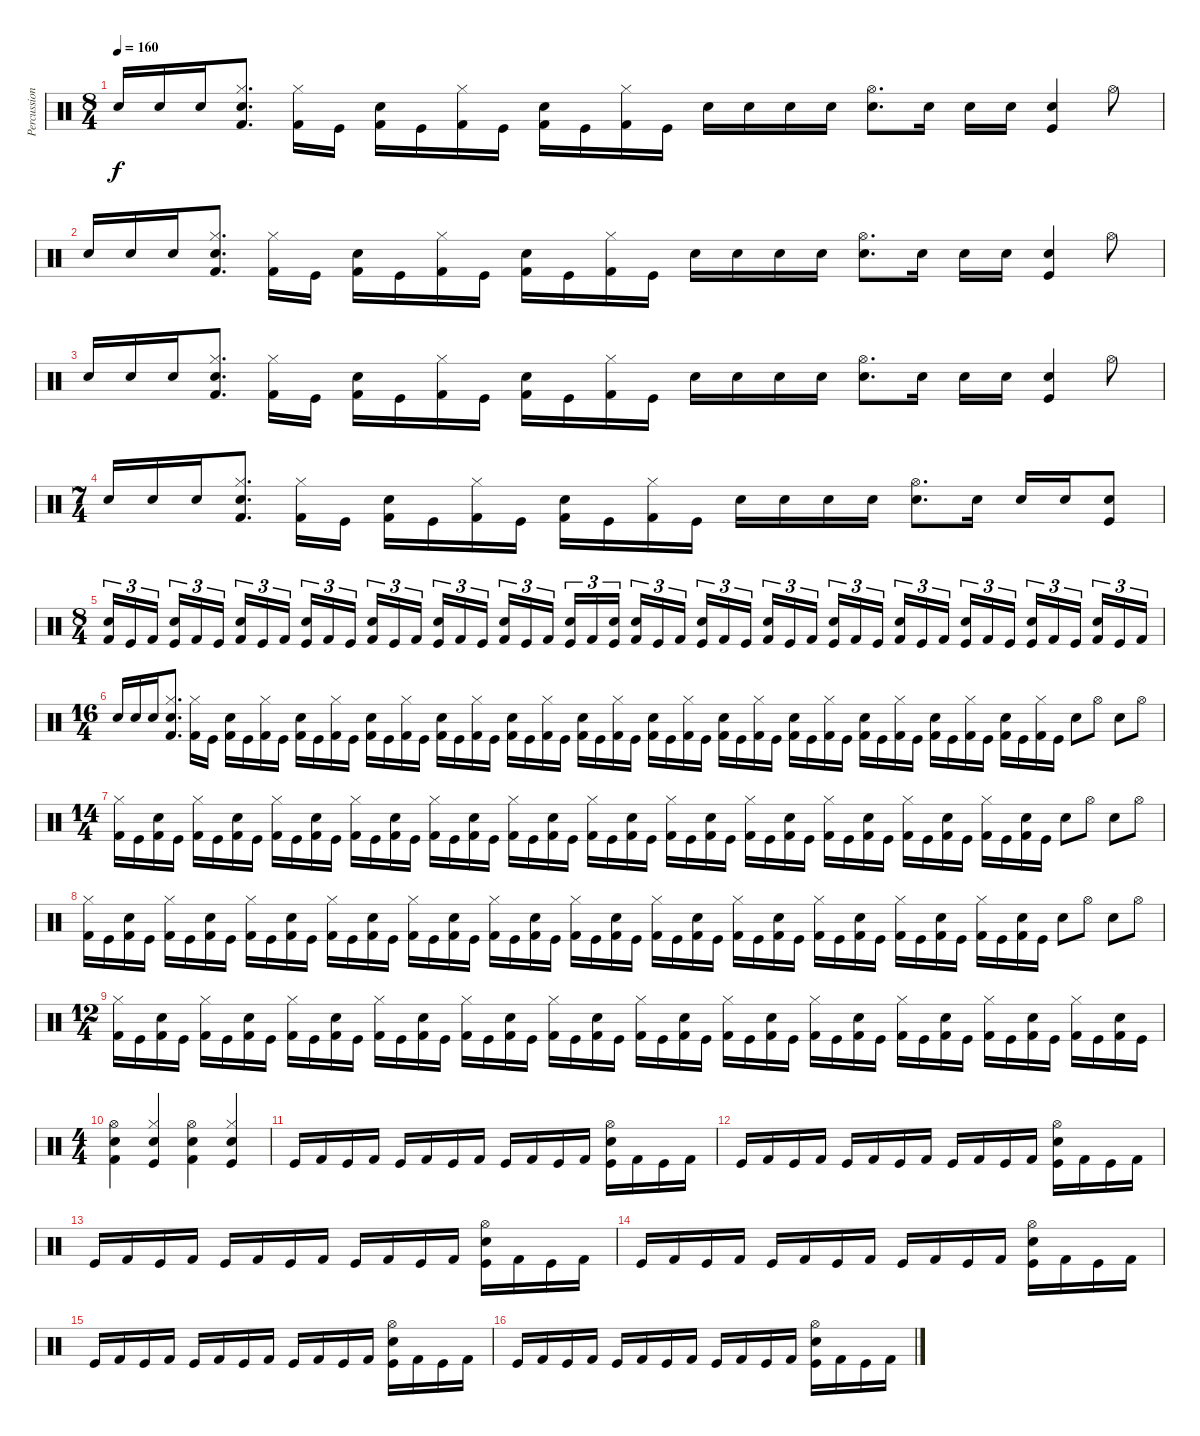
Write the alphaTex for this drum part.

\track ("Percussions" "Percussion") {instrument percussion}
\staff {score}
\articulation defaults
\ts (8 4)
\tempo 160
\clef neutral
\ks c "Electric Snare (hit)".16{dy f} "Electric Snare (hit)".16 "Electric Snare (hit)".16
("Hi-Hat (closed)" "Electric Snare (hit)" "Kick (hit) 2").8{d} ("Hi-Hat (closed)" "Kick (hit) 2").16 "Kick (hit)".16 ("Snare (hit) 2" "Kick (hit) 2").16 "Kick (hit)".16 ("Hi-Hat (closed)" "Kick (hit) 2").16 "Kick (hit)".16 ("Snare (hit) 2" "Kick (hit) 2").16 "Kick (hit)".16 ("Hi-Hat (closed)" "Kick (hit) 2").16 "Kick (hit)".16 "Snare (hit) 2".16 "Electric Snare (hit)".16 "Electric Snare (hit)".16 "Electric Snare (hit)".16 ("Hi-Hat (open)" "Electric Snare (hit)").8{d} "Electric Snare (hit)".16 "Electric Snare (hit)".16 "Electric Snare (hit)".16 ("Electric Snare (hit)" "Kick (hit)").4 "Hi-Hat (open)".8 |
"Electric Snare (hit)".16 "Electric Snare (hit)".16 "Electric Snare (hit)".16 ("Hi-Hat (closed)" "Electric Snare (hit)" "Kick (hit) 2").8{d} ("Hi-Hat (closed)" "Kick (hit) 2").16 "Kick (hit)".16 ("Snare (hit) 2" "Kick (hit) 2").16 "Kick (hit)".16 ("Hi-Hat (closed)" "Kick (hit) 2").16 "Kick (hit)".16 ("Snare (hit) 2" "Kick (hit) 2").16 "Kick (hit)".16 ("Hi-Hat (closed)" "Kick (hit) 2").16 "Kick (hit)".16 "Snare (hit) 2".16 "Electric Snare (hit)".16 "Electric Snare (hit)".16 "Electric Snare (hit)".16 ("Hi-Hat (open)" "Electric Snare (hit)").8{d} "Electric Snare (hit)".16 "Electric Snare (hit)".16 "Electric Snare (hit)".16 ("Electric Snare (hit)" "Kick (hit)").4 "Hi-Hat (open)".8 |
"Electric Snare (hit)".16 "Electric Snare (hit)".16 "Electric Snare (hit)".16 ("Hi-Hat (closed)" "Electric Snare (hit)" "Kick (hit) 2").8{d} ("Hi-Hat (closed)" "Kick (hit) 2").16 "Kick (hit)".16 ("Snare (hit) 2" "Kick (hit) 2").16 "Kick (hit)".16 ("Hi-Hat (closed)" "Kick (hit) 2").16 "Kick (hit)".16 ("Snare (hit) 2" "Kick (hit) 2").16 "Kick (hit)".16 ("Hi-Hat (closed)" "Kick (hit) 2").16 "Kick (hit)".16 "Snare (hit) 2".16 "Electric Snare (hit)".16 "Electric Snare (hit)".16 "Electric Snare (hit)".16 ("Hi-Hat (open)" "Electric Snare (hit)").8{d} "Electric Snare (hit)".16 "Electric Snare (hit)".16 "Electric Snare (hit)".16 ("Electric Snare (hit)" "Kick (hit)").4 "Hi-Hat (open)".8 |
\ts (7 4)
"Electric Snare (hit)".16 "Electric Snare (hit)".16 "Electric Snare (hit)".16 ("Hi-Hat (closed)" "Electric Snare (hit)" "Kick (hit) 2").8{d} ("Hi-Hat (closed)" "Kick (hit) 2").16 "Kick (hit)".16 ("Snare (hit) 2" "Kick (hit) 2").16 "Kick (hit)".16 ("Hi-Hat (closed)" "Kick (hit) 2").16 "Kick (hit)".16 ("Snare (hit) 2" "Kick (hit) 2").16 "Kick (hit)".16 ("Hi-Hat (closed)" "Kick (hit) 2").16 "Kick (hit)".16 "Snare (hit) 2".16 "Electric Snare (hit)".16 "Electric Snare (hit)".16 "Electric Snare (hit)".16 ("Hi-Hat (open)" "Electric Snare (hit)").8{d} "Electric Snare (hit)".16 "Electric Snare (hit)".16 "Electric Snare (hit)".16 ("Electric Snare (hit)" "Kick (hit)").8 |
\ts (8 4)
("Snare (hit) 2" "Kick (hit) 2").16{tu (3 2)} "Kick (hit)".16{tu (3 2)} "Kick (hit) 2".16{tu (3 2) beam splitsecondary} ("Snare (hit) 2" "Kick (hit)").16{tu (3 2)} "Kick (hit) 2".16{tu (3 2)} "Kick (hit)".16{tu (3 2)} ("Snare (hit) 2" "Kick (hit) 2").16{tu (3 2)} "Kick (hit)".16{tu (3 2)} "Kick (hit) 2".16{tu (3 2) beam splitsecondary} ("Electric Snare (hit)" "Kick (hit)").16{tu (3 2)} "Kick (hit) 2".16{tu (3 2)} "Kick (hit)".16{tu (3 2)} ("Electric Snare (hit)" "Kick (hit) 2").16{tu (3 2)} "Kick (hit)".16{tu (3 2)} "Kick (hit) 2".16{tu (3 2) beam splitsecondary} ("Snare (hit) 2" "Kick (hit)").16{tu (3 2)} "Kick (hit) 2".16{tu (3 2)} "Kick (hit)".16{tu (3 2)} ("Snare (hit) 2" "Kick (hit) 2").16{tu (3 2)} "Kick (hit)".16{tu (3 2)} "Kick (hit) 2".16{tu (3 2) beam splitsecondary} ("Snare (hit) 2" "Kick (hit)").16{tu (3 2)} "Kick (hit) 2".16{tu (3 2)} ("Snare (hit) 2" "Kick (hit)").16{tu (3 2)} ("Snare (hit) 2" "Kick (hit) 2").16{tu (3 2)} "Kick (hit)".16{tu (3 2)} "Kick (hit) 2".16{tu (3 2) beam splitsecondary} ("Snare (hit) 2" "Kick (hit)").16{tu (3 2)} "Kick (hit) 2".16{tu (3 2)} "Kick (hit)".16{tu (3 2)} ("Snare (hit) 2" "Kick (hit) 2").16{tu (3 2)} "Kick (hit)".16{tu (3 2)} "Kick (hit) 2".16{tu (3 2) beam splitsecondary} ("Snare (hit) 2" "Kick (hit)").16{tu (3 2)} "Kick (hit) 2".16{tu (3 2)} "Kick (hit)".16{tu (3 2)} ("Snare (hit) 2" "Kick (hit) 2").16{tu (3 2)} "Kick (hit)".16{tu (3 2)} "Kick (hit) 2".16{tu (3 2) beam splitsecondary} ("Electric Snare (hit)" "Kick (hit)").16{tu (3 2)} "Kick (hit) 2".16{tu (3 2)} "Kick (hit)".16{tu (3 2)} ("Snare (hit) 2" "Kick (hit)").16{tu (3 2)} "Kick (hit) 2".16{tu (3 2)} "Kick (hit)".16{tu (3 2) beam splitsecondary} ("Snare (hit) 2" "Kick (hit) 2").16{tu (3 2)} "Kick (hit)".16{tu (3 2)} "Kick (hit) 2".16{tu (3 2)} |
\ts (16 4)
"Electric Snare (hit)".16 "Electric Snare (hit)".16 "Electric Snare (hit)".16 ("Electric Snare (hit)" "Kick (hit) 2" "Hi-Hat (closed)").8{d} ("Hi-Hat (closed)" "Kick (hit) 2").16 "Kick (hit)".16 ("Snare (hit) 2" "Kick (hit) 2").16 "Kick (hit)".16 ("Hi-Hat (closed)" "Kick (hit) 2").16 "Kick (hit)".16 ("Snare (hit) 2" "Kick (hit) 2").16 "Kick (hit)".16 ("Hi-Hat (closed)" "Kick (hit) 2").16 "Kick (hit)".16 ("Snare (hit) 2" "Kick (hit) 2").16 "Kick (hit)".16 ("Hi-Hat (closed)" "Kick (hit) 2").16 "Kick (hit)".16 ("Snare (hit) 2" "Kick (hit) 2").16 "Kick (hit)".16 ("Hi-Hat (closed)" "Kick (hit) 2").16 "Kick (hit)".16 ("Snare (hit) 2" "Kick (hit) 2").16 "Kick (hit)".16 ("Hi-Hat (closed)" "Kick (hit) 2").16 "Kick (hit)".16 ("Snare (hit) 2" "Kick (hit) 2").16 "Kick (hit)".16 ("Hi-Hat (closed)" "Kick (hit) 2").16 "Kick (hit)".16 ("Snare (hit) 2" "Kick (hit) 2").16 "Kick (hit)".16 ("Hi-Hat (closed)" "Kick (hit) 2").16 "Kick (hit)".16 ("Snare (hit) 2" "Kick (hit) 2").16 "Kick (hit)".16 ("Hi-Hat (closed)" "Kick (hit) 2").16 "Kick (hit)".16 ("Snare (hit) 2" "Kick (hit) 2").16 "Kick (hit)".16 ("Hi-Hat (closed)" "Kick (hit) 2").16 "Kick (hit)".16 ("Snare (hit) 2" "Kick (hit) 2").16 "Kick (hit)".16 ("Hi-Hat (closed)" "Kick (hit) 2").16 "Kick (hit)".16 ("Snare (hit) 2" "Kick (hit) 2").16 "Kick (hit)".16 ("Hi-Hat (closed)" "Kick (hit) 2").16 "Kick (hit)".16 ("Snare (hit) 2" "Kick (hit) 2").16 "Kick (hit)".16 ("Hi-Hat (closed)" "Kick (hit) 2").16 "Kick (hit)".16 "Snare (hit) 2".8 "Hi-Hat (open)".8 "Snare (hit) 2".8 "Hi-Hat (open)".8 |
\ts (14 4)
("Hi-Hat (closed)" "Kick (hit) 2").16 "Kick (hit)".16 ("Snare (hit) 2" "Kick (hit) 2").16 "Kick (hit)".16 ("Hi-Hat (closed)" "Kick (hit) 2").16 "Kick (hit)".16 ("Snare (hit) 2" "Kick (hit) 2").16 "Kick (hit)".16 ("Hi-Hat (closed)" "Kick (hit) 2").16 "Kick (hit)".16 ("Snare (hit) 2" "Kick (hit) 2").16 "Kick (hit)".16 ("Hi-Hat (closed)" "Kick (hit) 2").16 "Kick (hit)".16 ("Snare (hit) 2" "Kick (hit) 2").16 "Kick (hit)".16 ("Hi-Hat (closed)" "Kick (hit) 2").16 "Kick (hit)".16 ("Snare (hit) 2" "Kick (hit) 2").16 "Kick (hit)".16 ("Hi-Hat (closed)" "Kick (hit) 2").16 "Kick (hit)".16 ("Snare (hit) 2" "Kick (hit) 2").16 "Kick (hit)".16 ("Hi-Hat (closed)" "Kick (hit) 2").16 "Kick (hit)".16 ("Snare (hit) 2" "Kick (hit) 2").16 "Kick (hit)".16 ("Hi-Hat (closed)" "Kick (hit) 2").16 "Kick (hit)".16 ("Snare (hit) 2" "Kick (hit) 2").16 "Kick (hit)".16 ("Hi-Hat (closed)" "Kick (hit) 2").16 "Kick (hit)".16 ("Snare (hit) 2" "Kick (hit) 2").16 "Kick (hit)".16 ("Hi-Hat (closed)" "Kick (hit) 2").16 "Kick (hit)".16 ("Snare (hit) 2" "Kick (hit) 2").16 "Kick (hit)".16 ("Hi-Hat (closed)" "Kick (hit) 2").16 "Kick (hit)".16 ("Snare (hit) 2" "Kick (hit) 2").16 "Kick (hit)".16 ("Hi-Hat (closed)" "Kick (hit) 2").16 "Kick (hit)".16 ("Snare (hit) 2" "Kick (hit) 2").16 "Kick (hit)".16 "Snare (hit) 2".8 "Hi-Hat (open)".8 "Snare (hit) 2".8 "Hi-Hat (open)".8 |
("Hi-Hat (closed)" "Kick (hit) 2").16 "Kick (hit)".16 ("Snare (hit) 2" "Kick (hit) 2").16 "Kick (hit)".16 ("Hi-Hat (closed)" "Kick (hit) 2").16 "Kick (hit)".16 ("Snare (hit) 2" "Kick (hit) 2").16 "Kick (hit)".16 ("Hi-Hat (closed)" "Kick (hit) 2").16 "Kick (hit)".16 ("Snare (hit) 2" "Kick (hit) 2").16 "Kick (hit)".16 ("Hi-Hat (closed)" "Kick (hit) 2").16 "Kick (hit)".16 ("Snare (hit) 2" "Kick (hit) 2").16 "Kick (hit)".16 ("Hi-Hat (closed)" "Kick (hit) 2").16 "Kick (hit)".16 ("Snare (hit) 2" "Kick (hit) 2").16 "Kick (hit)".16 ("Hi-Hat (closed)" "Kick (hit) 2").16 "Kick (hit)".16 ("Snare (hit) 2" "Kick (hit) 2").16 "Kick (hit)".16 ("Hi-Hat (closed)" "Kick (hit) 2").16 "Kick (hit)".16 ("Snare (hit) 2" "Kick (hit) 2").16 "Kick (hit)".16 ("Hi-Hat (closed)" "Kick (hit) 2").16 "Kick (hit)".16 ("Snare (hit) 2" "Kick (hit) 2").16 "Kick (hit)".16 ("Hi-Hat (closed)" "Kick (hit) 2").16 "Kick (hit)".16 ("Snare (hit) 2" "Kick (hit) 2").16 "Kick (hit)".16 ("Hi-Hat (closed)" "Kick (hit) 2").16 "Kick (hit)".16 ("Snare (hit) 2" "Kick (hit) 2").16 "Kick (hit)".16 ("Hi-Hat (closed)" "Kick (hit) 2").16 "Kick (hit)".16 ("Snare (hit) 2" "Kick (hit) 2").16 "Kick (hit)".16 ("Hi-Hat (closed)" "Kick (hit) 2").16 "Kick (hit)".16 ("Snare (hit) 2" "Kick (hit) 2").16 "Kick (hit)".16 "Snare (hit) 2".8 "Hi-Hat (open)".8 "Snare (hit) 2".8 "Hi-Hat (open)".8 |
\ts (12 4)
("Hi-Hat (closed)" "Kick (hit) 2").16 "Kick (hit)".16 ("Snare (hit) 2" "Kick (hit) 2").16 "Kick (hit)".16 ("Hi-Hat (closed)" "Kick (hit) 2").16 "Kick (hit)".16 ("Snare (hit) 2" "Kick (hit) 2").16 "Kick (hit)".16 ("Hi-Hat (closed)" "Kick (hit) 2").16 "Kick (hit)".16 ("Snare (hit) 2" "Kick (hit) 2").16 "Kick (hit)".16 ("Hi-Hat (closed)" "Kick (hit) 2").16 "Kick (hit)".16 ("Snare (hit) 2" "Kick (hit) 2").16 "Kick (hit)".16 ("Hi-Hat (closed)" "Kick (hit) 2").16 "Kick (hit)".16 ("Snare (hit) 2" "Kick (hit) 2").16 "Kick (hit)".16 ("Hi-Hat (closed)" "Kick (hit) 2").16 "Kick (hit)".16 ("Snare (hit) 2" "Kick (hit) 2").16 "Kick (hit)".16 ("Hi-Hat (closed)" "Kick (hit) 2").16 "Kick (hit)".16 ("Snare (hit) 2" "Kick (hit) 2").16 "Kick (hit)".16 ("Hi-Hat (closed)" "Kick (hit) 2").16 "Kick (hit)".16 ("Snare (hit) 2" "Kick (hit) 2").16 "Kick (hit)".16 ("Hi-Hat (closed)" "Kick (hit) 2").16 "Kick (hit)".16 ("Snare (hit) 2" "Kick (hit) 2").16 "Kick (hit)".16 ("Hi-Hat (closed)" "Kick (hit) 2").16 "Kick (hit)".16 ("Snare (hit) 2" "Kick (hit) 2").16 "Kick (hit)".16 ("Hi-Hat (closed)" "Kick (hit) 2").16 "Kick (hit)".16 ("Snare (hit) 2" "Kick (hit) 2").16 "Kick (hit)".16 ("Hi-Hat (closed)" "Kick (hit) 2").16 "Kick (hit)".16 ("Snare (hit) 2" "Kick (hit) 2").16 "Kick (hit)".16 |
\ts (4 4)
("Electric Snare (hit)" "Kick (hit) 2" "Hi-Hat (open)").4 ("Electric Snare (hit)" "Kick (hit)" "Hi-Hat (closed)").4 ("Electric Snare (hit)" "Kick (hit) 2" "Hi-Hat (open)").4 ("Electric Snare (hit)" "Kick (hit)" "Hi-Hat (closed)").4 |
"Kick (hit)".16 "Kick (hit) 2".16 "Kick (hit)".16 "Kick (hit) 2".16 "Kick (hit)".16 "Kick (hit) 2".16 "Kick (hit)".16 "Kick (hit) 2".16 "Kick (hit)".16 "Kick (hit) 2".16 "Kick (hit)".16 "Kick (hit) 2".16 ("Hi-Hat (open)" "Electric Snare (hit)" "Kick (hit)").16 "Kick (hit) 2".16 "Kick (hit)".16 "Kick (hit) 2".16 |
"Kick (hit)".16 "Kick (hit) 2".16 "Kick (hit)".16 "Kick (hit) 2".16 "Kick (hit)".16 "Kick (hit) 2".16 "Kick (hit)".16 "Kick (hit) 2".16 "Kick (hit)".16 "Kick (hit) 2".16 "Kick (hit)".16 "Kick (hit) 2".16 ("Hi-Hat (open)" "Electric Snare (hit)" "Kick (hit)").16 "Kick (hit) 2".16 "Kick (hit)".16 "Kick (hit) 2".16 |
"Kick (hit)".16 "Kick (hit) 2".16 "Kick (hit)".16 "Kick (hit) 2".16 "Kick (hit)".16 "Kick (hit) 2".16 "Kick (hit)".16 "Kick (hit) 2".16 "Kick (hit)".16 "Kick (hit) 2".16 "Kick (hit)".16 "Kick (hit) 2".16 ("Hi-Hat (open)" "Electric Snare (hit)" "Kick (hit)").16 "Kick (hit) 2".16 "Kick (hit)".16 "Kick (hit) 2".16 |
"Kick (hit)".16 "Kick (hit) 2".16 "Kick (hit)".16 "Kick (hit) 2".16 "Kick (hit)".16 "Kick (hit) 2".16 "Kick (hit)".16 "Kick (hit) 2".16 "Kick (hit)".16 "Kick (hit) 2".16 "Kick (hit)".16 "Kick (hit) 2".16 ("Hi-Hat (open)" "Electric Snare (hit)" "Kick (hit)").16 "Kick (hit) 2".16 "Kick (hit)".16 "Kick (hit) 2".16 |
"Kick (hit)".16 "Kick (hit) 2".16 "Kick (hit)".16 "Kick (hit) 2".16 "Kick (hit)".16 "Kick (hit) 2".16 "Kick (hit)".16 "Kick (hit) 2".16 "Kick (hit)".16 "Kick (hit) 2".16 "Kick (hit)".16 "Kick (hit) 2".16 ("Hi-Hat (open)" "Electric Snare (hit)" "Kick (hit)").16 "Kick (hit) 2".16 "Kick (hit)".16 "Kick (hit) 2".16 |
"Kick (hit)".16 "Kick (hit) 2".16 "Kick (hit)".16 "Kick (hit) 2".16 "Kick (hit)".16 "Kick (hit) 2".16 "Kick (hit)".16 "Kick (hit) 2".16 "Kick (hit)".16 "Kick (hit) 2".16 "Kick (hit)".16 "Kick (hit) 2".16 ("Hi-Hat (open)" "Electric Snare (hit)" "Kick (hit)").16 "Kick (hit) 2".16 "Kick (hit)".16 "Kick (hit) 2".16
